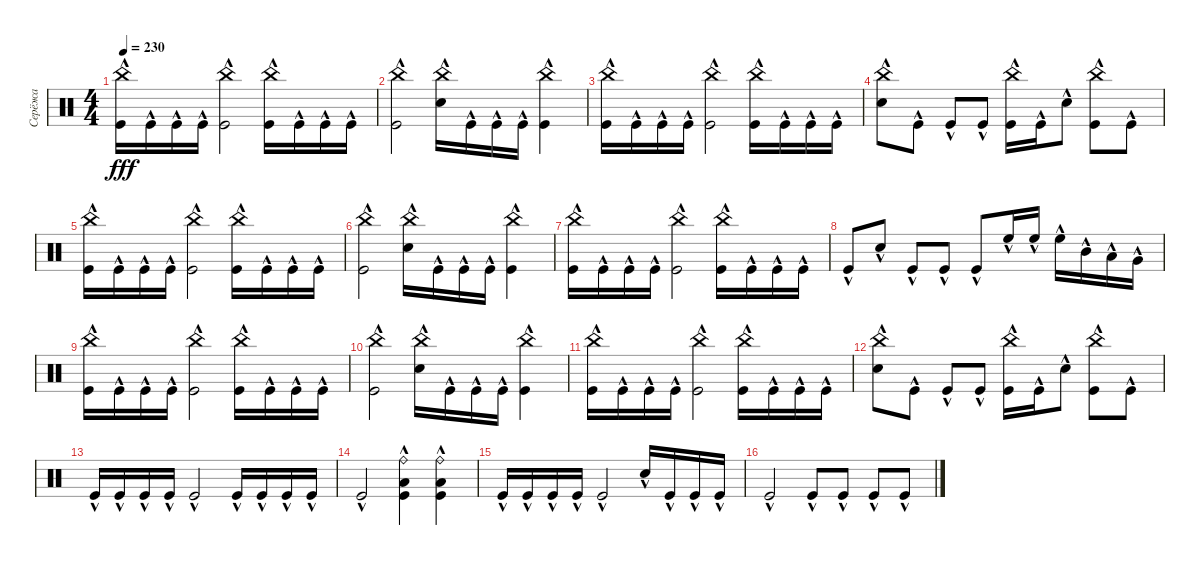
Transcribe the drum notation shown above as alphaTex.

\track ("Серёжа" "Серёжа") {instrument percussion}
\staff {score}
\articulation defaults
\ts (4 4)
\tempo 230
\clef neutral
\ks c
("China (hit)" "Kick (hit)"{hac}).16{dy fff} "Kick (hit)"{hac}.16 "Kick (hit)"{hac}.16 "Kick (hit)"{hac}.16 ("China (hit)" "Kick (hit)"{hac}).2 ("China (hit)" "Kick (hit)"{hac}).16 "Kick (hit)"{hac}.16 "Kick (hit)"{hac}.16 "Kick (hit)"{hac}.16 |
("China (hit)" "Kick (hit)"{hac}).2 ("China (hit)" "Snare (hit) 2"{hac}).16 "Kick (hit)"{hac}.16 "Kick (hit)"{hac}.16 "Kick (hit)"{hac}.16 ("China (hit)" "Kick (hit)"{hac}).4 |
("China (hit)" "Kick (hit)"{hac}).16 "Kick (hit)"{hac}.16 "Kick (hit)"{hac}.16 "Kick (hit)"{hac}.16 ("China (hit)" "Kick (hit)"{hac}).2 ("China (hit)" "Kick (hit)"{hac}).16 "Kick (hit)"{hac}.16 "Kick (hit)"{hac}.16 "Kick (hit)"{hac}.16 |
("China (hit)" "Snare (hit) 2"{hac}).8 "Kick (hit)"{hac}.8 "Kick (hit)"{hac}.8 "Kick (hit)"{hac}.8 ("China (hit)" "Kick (hit)"{hac}).16 "Kick (hit)"{hac}.16 "Snare (hit) 2"{hac}.8 ("China (hit)" "Kick (hit)"{hac}).8 "Kick (hit)"{hac}.8 |
("China (hit)" "Kick (hit)"{hac}).16 "Kick (hit)"{hac}.16 "Kick (hit)"{hac}.16 "Kick (hit)"{hac}.16 ("China (hit)" "Kick (hit)"{hac}).2 ("China (hit)" "Kick (hit)"{hac}).16 "Kick (hit)"{hac}.16 "Kick (hit)"{hac}.16 "Kick (hit)"{hac}.16 |
("China (hit)" "Kick (hit)"{hac}).2 ("China (hit)" "Snare (hit) 2"{hac}).16 "Kick (hit)"{hac}.16 "Kick (hit)"{hac}.16 "Kick (hit)"{hac}.16 ("China (hit)" "Kick (hit)"{hac}).4 |
("China (hit)" "Kick (hit)"{hac}).16 "Kick (hit)"{hac}.16 "Kick (hit)"{hac}.16 "Kick (hit)"{hac}.16 ("China (hit)" "Kick (hit)"{hac}).2 ("China (hit)" "Kick (hit)"{hac}).16 "Kick (hit)"{hac}.16 "Kick (hit)"{hac}.16 "Kick (hit)"{hac}.16 |
"Kick (hit)"{hac}.8 "Snare (hit) 2"{hac}.8 "Kick (hit)"{hac}.8 "Kick (hit)"{hac}.8 "Kick (hit)"{hac}.8 "High Floor Tom (hit)"{hac}.16 "High Floor Tom (hit)"{hac}.16 "High Floor Tom (hit)"{hac}.16 "Mid Tom (hit)"{hac}.16 "Low Tom (hit)"{hac}.16 "Very Low Tom (hit)"{hac}.16 |
("China (hit)" "Kick (hit)"{hac}).16 "Kick (hit)"{hac}.16 "Kick (hit)"{hac}.16 "Kick (hit)"{hac}.16 ("China (hit)" "Kick (hit)"{hac}).2 ("China (hit)" "Kick (hit)"{hac}).16 "Kick (hit)"{hac}.16 "Kick (hit)"{hac}.16 "Kick (hit)"{hac}.16 |
("China (hit)" "Kick (hit)"{hac}).2 ("China (hit)" "Snare (hit) 2"{hac}).16 "Kick (hit)"{hac}.16 "Kick (hit)"{hac}.16 "Kick (hit)"{hac}.16 ("China (hit)" "Kick (hit)"{hac}).4 |
("China (hit)" "Kick (hit)"{hac}).16 "Kick (hit)"{hac}.16 "Kick (hit)"{hac}.16 "Kick (hit)"{hac}.16 ("China (hit)" "Kick (hit)"{hac}).2 ("China (hit)" "Kick (hit)"{hac}).16 "Kick (hit)"{hac}.16 "Kick (hit)"{hac}.16 "Kick (hit)"{hac}.16 |
("China (hit)" "Snare (hit) 2"{hac}).8 "Kick (hit)"{hac}.8 "Kick (hit)"{hac}.8 "Kick (hit)"{hac}.8 ("China (hit)" "Kick (hit)"{hac}).16 "Kick (hit)"{hac}.16 "Snare (hit) 2"{hac}.8 ("China (hit)" "Kick (hit)"{hac}).8 "Kick (hit)"{hac}.8 |
"Kick (hit)"{hac}.16 "Kick (hit)"{hac}.16 "Kick (hit)"{hac}.16 "Kick (hit)"{hac}.16 "Kick (hit)"{hac}.2 "Kick (hit)"{hac}.16 "Kick (hit)"{hac}.16 "Kick (hit)"{hac}.16 "Kick (hit)"{hac}.16 |
"Kick (hit)"{hac}.2 ("Ride (bell)" "Low Tom (hit)"{hac} "Kick (hit)"{hac}).4 ("Ride (bell)" "Low Tom (hit)"{hac} "Kick (hit)"{hac}).4 |
"Kick (hit)"{hac}.16 "Kick (hit)"{hac}.16 "Kick (hit)"{hac}.16 "Kick (hit)"{hac}.16 "Kick (hit)"{hac}.2 "Snare (hit) 2"{hac}.16 "Kick (hit)"{hac}.16 "Kick (hit)"{hac}.16 "Kick (hit)"{hac}.16 |
"Kick (hit)"{hac}.2 "Kick (hit)"{hac}.8 "Kick (hit)"{hac}.8 "Kick (hit)"{hac}.8 "Kick (hit)"{hac}.8
